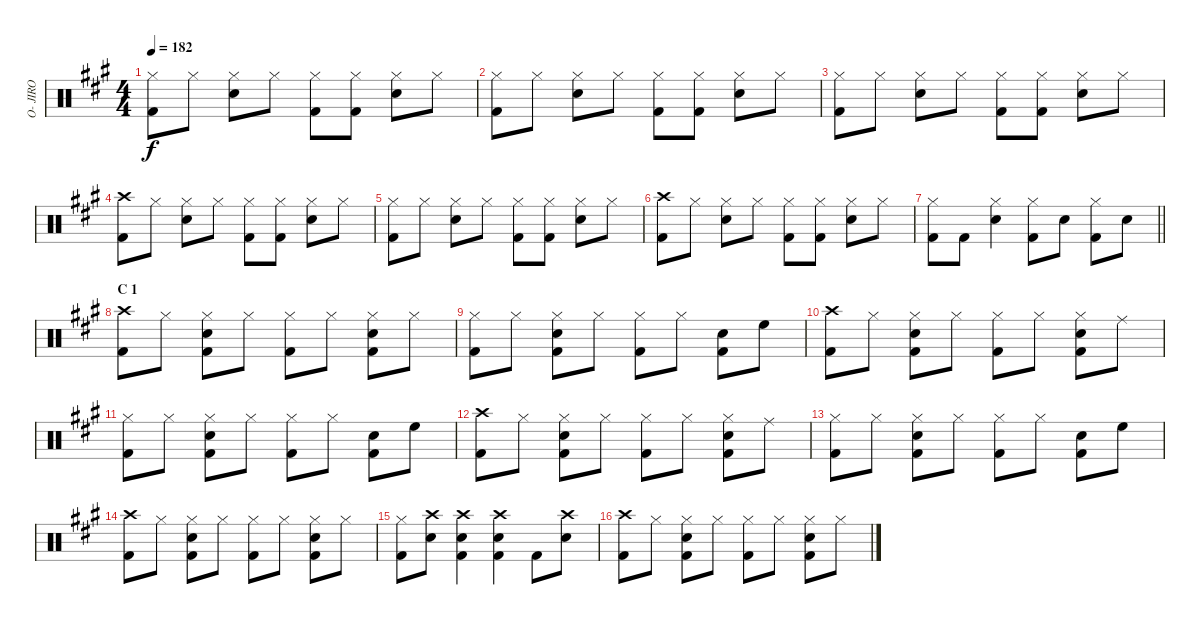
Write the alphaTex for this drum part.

\track ("O- JIRO" "O- JIRO") {instrument percussion}
\staff {score}
\articulation defaults
\ts (4 4)
\tempo 182
\clef neutral
\ks a
("Hi-Hat (closed)" "Kick (hit) 2").8{dy f} "Hi-Hat (closed)".8 ("Hi-Hat (closed)" "Snare (hit) 2").8 "Hi-Hat (closed)".8 ("Hi-Hat (closed)" "Kick (hit) 2").8 ("Hi-Hat (closed)" "Kick (hit) 2").8 ("Hi-Hat (closed)" "Snare (hit) 2").8 "Hi-Hat (closed)".8 |
("Hi-Hat (closed)" "Kick (hit) 2").8 "Hi-Hat (closed)".8 ("Hi-Hat (closed)" "Snare (hit) 2").8 "Hi-Hat (closed)".8 ("Hi-Hat (closed)" "Kick (hit) 2").8 ("Hi-Hat (closed)" "Kick (hit) 2").8 ("Hi-Hat (closed)" "Snare (hit) 2").8 "Hi-Hat (closed)".8 |
("Hi-Hat (closed)" "Kick (hit) 2").8 "Hi-Hat (closed)".8 ("Hi-Hat (closed)" "Snare (hit) 2").8 "Hi-Hat (closed)".8 ("Hi-Hat (closed)" "Kick (hit) 2").8 ("Hi-Hat (closed)" "Kick (hit) 2").8 ("Hi-Hat (closed)" "Snare (hit) 2").8 "Hi-Hat (closed)".8 |
("Crash high (hit)" "Kick (hit) 2").8 "Hi-Hat (closed)".8 ("Hi-Hat (closed)" "Snare (hit) 2").8 "Hi-Hat (closed)".8 ("Hi-Hat (closed)" "Kick (hit) 2").8 ("Hi-Hat (closed)" "Kick (hit) 2").8 ("Hi-Hat (closed)" "Snare (hit) 2").8 "Hi-Hat (closed)".8 |
("Hi-Hat (closed)" "Kick (hit) 2").8 "Hi-Hat (closed)".8 ("Hi-Hat (closed)" "Snare (hit) 2").8 "Hi-Hat (closed)".8 ("Hi-Hat (closed)" "Kick (hit) 2").8 ("Hi-Hat (closed)" "Kick (hit) 2").8 ("Hi-Hat (closed)" "Snare (hit) 2").8 "Hi-Hat (closed)".8 |
("Crash high (hit)" "Kick (hit) 2").8 "Hi-Hat (closed)".8 ("Hi-Hat (closed)" "Snare (hit) 2").8 "Hi-Hat (closed)".8 ("Hi-Hat (closed)" "Kick (hit) 2").8 ("Hi-Hat (closed)" "Kick (hit) 2").8 ("Hi-Hat (closed)" "Snare (hit) 2").8 "Hi-Hat (closed)".8 |
\barLineRight lightlight
("Hi-Hat (closed)" "Kick (hit) 2").8 "Kick (hit) 2".8 ("Hi-Hat (closed)" "Snare (hit) 2").4 ("Hi-Hat (closed)" "Kick (hit) 2").8 "Snare (hit) 2".8 ("Hi-Hat (closed)" "Kick (hit) 2").8 "Snare (hit) 2".8 |
\section ("" "C 1")
("Crash high (hit)" "Kick (hit) 2").8 "Hi-Hat (closed)".8 ("Hi-Hat (closed)" "Snare (hit) 2" "Kick (hit) 2").8 "Hi-Hat (closed)".8 ("Hi-Hat (closed)" "Kick (hit) 2").8 "Hi-Hat (closed)".8 ("Hi-Hat (closed)" "Snare (hit) 2" "Kick (hit) 2").8 "Hi-Hat (closed)".8 |
("Hi-Hat (closed)" "Kick (hit) 2").8 "Hi-Hat (closed)".8 ("Hi-Hat (closed)" "Snare (hit) 2" "Kick (hit) 2").8 "Hi-Hat (closed)".8 ("Hi-Hat (closed)" "Kick (hit) 2").8 "Hi-Hat (closed)".8 ("Snare (hit) 2" "Kick (hit) 2").8 "High Floor Tom (hit)".8 |
("Crash high (hit)" "Kick (hit) 2").8 "Hi-Hat (closed)".8 ("Hi-Hat (closed)" "Snare (hit) 2" "Kick (hit) 2").8 "Hi-Hat (closed)".8 ("Hi-Hat (closed)" "Kick (hit) 2").8 "Hi-Hat (closed)".8 ("Hi-Hat (closed)" "Snare (hit) 2" "Kick (hit) 2").8 "Ride (middle)".8 |
("Hi-Hat (closed)" "Kick (hit) 2").8 "Hi-Hat (closed)".8 ("Hi-Hat (closed)" "Snare (hit) 2" "Kick (hit) 2").8 "Hi-Hat (closed)".8 ("Hi-Hat (closed)" "Kick (hit) 2").8 "Hi-Hat (closed)".8 ("Snare (hit) 2" "Kick (hit) 2").8 "High Floor Tom (hit)".8 |
("Crash high (hit)" "Kick (hit) 2").8 "Hi-Hat (closed)".8 ("Hi-Hat (closed)" "Snare (hit) 2" "Kick (hit) 2").8 "Hi-Hat (closed)".8 ("Hi-Hat (closed)" "Kick (hit) 2").8 "Hi-Hat (closed)".8 ("Hi-Hat (closed)" "Snare (hit) 2" "Kick (hit) 2").8 "Ride (middle)".8 |
("Hi-Hat (closed)" "Kick (hit) 2").8 "Hi-Hat (closed)".8 ("Hi-Hat (closed)" "Snare (hit) 2" "Kick (hit) 2").8 "Hi-Hat (closed)".8 ("Hi-Hat (closed)" "Kick (hit) 2").8 "Hi-Hat (closed)".8 ("Snare (hit) 2" "Kick (hit) 2").8 "High Floor Tom (hit)".8 |
("Crash high (hit)" "Kick (hit) 2").8 "Hi-Hat (closed)".8 ("Hi-Hat (closed)" "Snare (hit) 2" "Kick (hit) 2").8 "Hi-Hat (closed)".8 ("Hi-Hat (closed)" "Kick (hit) 2").8 "Hi-Hat (closed)".8 ("Hi-Hat (closed)" "Snare (hit) 2" "Kick (hit) 2").8 "Hi-Hat (closed)".8 |
("Hi-Hat (closed)" "Kick (hit) 2").8 ("Crash high (hit)" "Snare (hit) 2").8 ("Crash high (hit)" "Snare (hit) 2" "Kick (hit) 2").4 ("Crash high (hit)" "Snare (hit) 2" "Kick (hit) 2").4 "Kick (hit) 2".8 ("Crash high (hit)" "Snare (hit) 2").8 |
("Crash high (hit)" "Kick (hit) 2").8 "Hi-Hat (closed)".8 ("Hi-Hat (closed)" "Snare (hit) 2" "Kick (hit) 2").8 "Hi-Hat (closed)".8 ("Hi-Hat (closed)" "Kick (hit) 2").8 "Hi-Hat (closed)".8 ("Hi-Hat (closed)" "Snare (hit) 2" "Kick (hit) 2").8 "Hi-Hat (closed)".8
